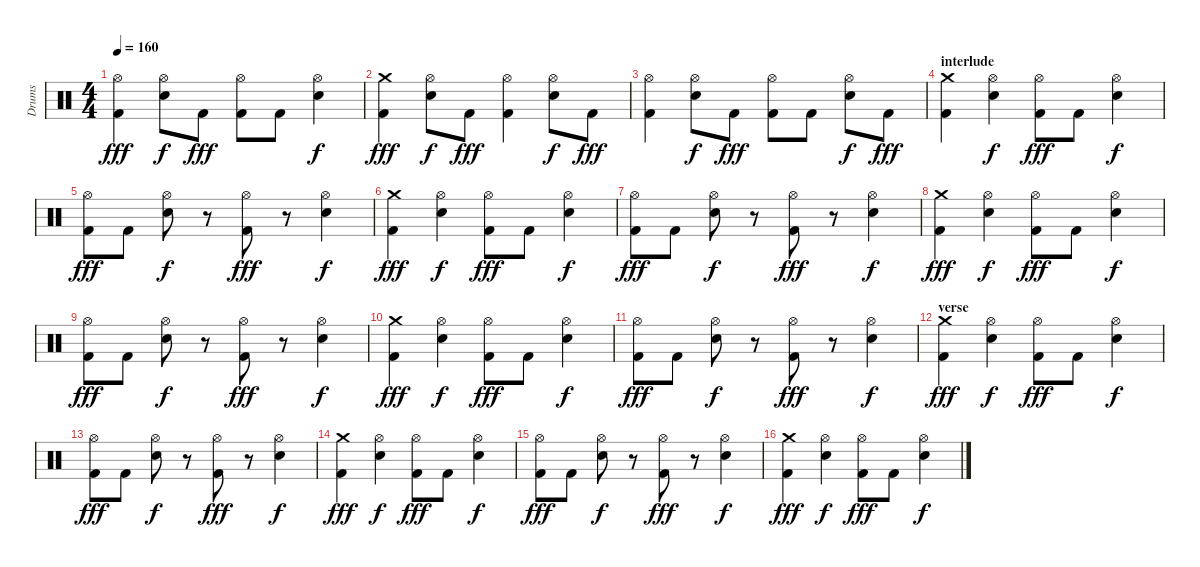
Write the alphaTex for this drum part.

\track ("Drums" "Drums") {instrument percussion}
\staff {score}
\articulation defaults
\ts (4 4)
\tempo 160
\clef neutral
\ks c
("Hi-Hat (open)" "Kick (hit) 2").4{dy fff} ("Hi-Hat (open)" "Electric Snare (hit)").8{dy f} "Kick (hit) 2".8{dy fff} ("Hi-Hat (open)" "Kick (hit) 2").8 "Kick (hit) 2".8 ("Hi-Hat (open)" "Electric Snare (hit)").4{dy f} |
("Crash medium (hit)" "Kick (hit) 2").4{dy fff} ("Hi-Hat (open)" "Electric Snare (hit)").8{dy f} "Kick (hit) 2".8{dy fff} ("Hi-Hat (open)" "Kick (hit) 2").4 ("Hi-Hat (open)" "Electric Snare (hit)").8{dy f} "Kick (hit) 2".8{dy fff} |
("Hi-Hat (open)" "Kick (hit) 2").4 ("Hi-Hat (open)" "Electric Snare (hit)").8{dy f} "Kick (hit) 2".8{dy fff} ("Hi-Hat (open)" "Kick (hit) 2").8 "Kick (hit) 2".8 ("Hi-Hat (open)" "Electric Snare (hit)").8{dy f} "Kick (hit) 2".8{dy fff} |
\section ("" "interlude")
("Crash medium (hit)" "Kick (hit) 2").4 ("Hi-Hat (open)" "Electric Snare (hit)").4{dy f} ("Hi-Hat (open)" "Kick (hit) 2").8{dy fff} "Kick (hit) 2".8 ("Hi-Hat (open)" "Electric Snare (hit)").4{dy f} |
("Hi-Hat (open)" "Kick (hit) 2").8{dy fff} "Kick (hit) 2".8 ("Hi-Hat (open)" "Electric Snare (hit)").8{dy f} r.8 ("Hi-Hat (open)" "Kick (hit) 2").8{dy fff} r.8 ("Hi-Hat (open)" "Electric Snare (hit)").4{dy f} |
("Crash medium (hit)" "Kick (hit) 2").4{dy fff} ("Hi-Hat (open)" "Electric Snare (hit)").4{dy f} ("Hi-Hat (open)" "Kick (hit) 2").8{dy fff} "Kick (hit) 2".8 ("Hi-Hat (open)" "Electric Snare (hit)").4{dy f} |
("Hi-Hat (open)" "Kick (hit) 2").8{dy fff} "Kick (hit) 2".8 ("Hi-Hat (open)" "Electric Snare (hit)").8{dy f} r.8 ("Hi-Hat (open)" "Kick (hit) 2").8{dy fff} r.8 ("Hi-Hat (open)" "Electric Snare (hit)").4{dy f} |
("Crash medium (hit)" "Kick (hit) 2").4{dy fff} ("Hi-Hat (open)" "Electric Snare (hit)").4{dy f} ("Hi-Hat (open)" "Kick (hit) 2").8{dy fff} "Kick (hit) 2".8 ("Hi-Hat (open)" "Electric Snare (hit)").4{dy f} |
("Hi-Hat (open)" "Kick (hit) 2").8{dy fff} "Kick (hit) 2".8 ("Hi-Hat (open)" "Electric Snare (hit)").8{dy f} r.8 ("Hi-Hat (open)" "Kick (hit) 2").8{dy fff} r.8 ("Hi-Hat (open)" "Electric Snare (hit)").4{dy f} |
("Crash medium (hit)" "Kick (hit) 2").4{dy fff} ("Hi-Hat (open)" "Electric Snare (hit)").4{dy f} ("Hi-Hat (open)" "Kick (hit) 2").8{dy fff} "Kick (hit) 2".8 ("Hi-Hat (open)" "Electric Snare (hit)").4{dy f} |
("Hi-Hat (open)" "Kick (hit) 2").8{dy fff} "Kick (hit) 2".8 ("Hi-Hat (open)" "Electric Snare (hit)").8{dy f} r.8 ("Hi-Hat (open)" "Kick (hit) 2").8{dy fff} r.8 ("Hi-Hat (open)" "Electric Snare (hit)").4{dy f} |
\section ("" "verse")
("Crash medium (hit)" "Kick (hit) 2").4{dy fff} ("Hi-Hat (open)" "Electric Snare (hit)").4{dy f} ("Hi-Hat (open)" "Kick (hit) 2").8{dy fff} "Kick (hit) 2".8 ("Hi-Hat (open)" "Electric Snare (hit)").4{dy f} |
("Hi-Hat (open)" "Kick (hit) 2").8{dy fff} "Kick (hit) 2".8 ("Hi-Hat (open)" "Electric Snare (hit)").8{dy f} r.8 ("Hi-Hat (open)" "Kick (hit) 2").8{dy fff} r.8 ("Hi-Hat (open)" "Electric Snare (hit)").4{dy f} |
("Crash medium (hit)" "Kick (hit) 2").4{dy fff} ("Hi-Hat (open)" "Electric Snare (hit)").4{dy f} ("Hi-Hat (open)" "Kick (hit) 2").8{dy fff} "Kick (hit) 2".8 ("Hi-Hat (open)" "Electric Snare (hit)").4{dy f} |
("Hi-Hat (open)" "Kick (hit) 2").8{dy fff} "Kick (hit) 2".8 ("Hi-Hat (open)" "Electric Snare (hit)").8{dy f} r.8 ("Hi-Hat (open)" "Kick (hit) 2").8{dy fff} r.8 ("Hi-Hat (open)" "Electric Snare (hit)").4{dy f} |
("Crash medium (hit)" "Kick (hit) 2").4{dy fff} ("Hi-Hat (open)" "Electric Snare (hit)").4{dy f} ("Hi-Hat (open)" "Kick (hit) 2").8{dy fff} "Kick (hit) 2".8 ("Hi-Hat (open)" "Electric Snare (hit)").4{dy f}
